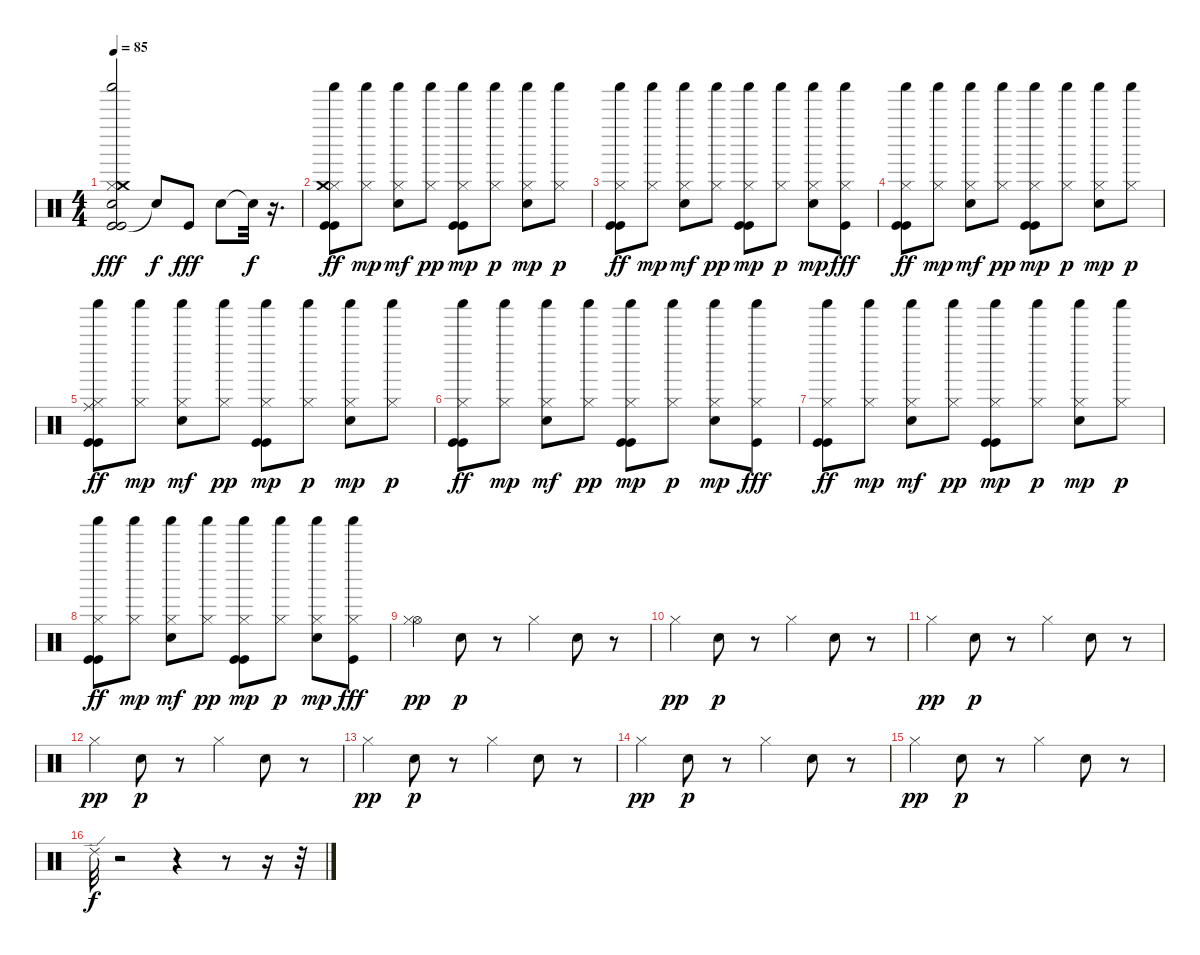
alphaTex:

\track "" {instrument percussion}
\staff {score}
\articulation defaults
\ts (4 4)
\tempo 85
\clef neutral
\ks c
("Kick (hit)" "Hi-Hat (closed)" "Shaker (hit)" "Kick (hit)" "Crash medium (hit)" "Snare (hit)").2{dy fff} "Snare (hit)"{t}.8{dy f} "Kick (hit)".8{dy fff} "Metronome (bell)".8 "Snare (hit)"{t}.32{dy f} r.16{d} |
("Kick (hit)" "Hi-Hat (closed)" "Shaker (hit)" "Kick (hit)" "Crash medium (hit)").8{dy ff} ("Hi-Hat (closed)" "Shaker (hit)").8{dy mp} ("Hi-Hat (closed)" "Shaker (hit)" "Metronome (bell)").8{dy mf} ("Hi-Hat (closed)" "Shaker (hit)").8{dy pp} ("Kick (hit)" "Kick (hit)" "Hi-Hat (closed)" "Shaker (hit)").8{dy mp} ("Hi-Hat (closed)" "Shaker (hit)").8{dy p} ("Metronome (bell)" "Shaker (hit)" "Hi-Hat (closed)").8{dy mp} ("Hi-Hat (closed)" "Shaker (hit)").8{dy p} |
("Kick (hit)" "Hi-Hat (closed)" "Shaker (hit)" "Kick (hit)").8{dy ff} ("Hi-Hat (closed)" "Shaker (hit)").8{dy mp} ("Hi-Hat (closed)" "Shaker (hit)" "Metronome (bell)").8{dy mf} ("Hi-Hat (closed)" "Shaker (hit)").8{dy pp} ("Kick (hit)" "Kick (hit)" "Hi-Hat (closed)" "Shaker (hit)").8{dy mp} ("Hi-Hat (closed)" "Shaker (hit)").8{dy p} ("Metronome (bell)" "Shaker (hit)" "Hi-Hat (closed)").8{dy mp} ("Hi-Hat (closed)" "Shaker (hit)" "Kick (hit)").8{dy fff} |
("Kick (hit)" "Hi-Hat (closed)" "Shaker (hit)" "Kick (hit)").8{dy ff} ("Hi-Hat (closed)" "Shaker (hit)").8{dy mp} ("Hi-Hat (closed)" "Shaker (hit)" "Metronome (bell)").8{dy mf} ("Hi-Hat (closed)" "Shaker (hit)").8{dy pp} ("Kick (hit)" "Kick (hit)" "Hi-Hat (closed)" "Shaker (hit)").8{dy mp} ("Hi-Hat (closed)" "Shaker (hit)").8{dy p} ("Metronome (bell)" "Shaker (hit)" "Hi-Hat (closed)").8{dy mp} ("Hi-Hat (closed)" "Shaker (hit)").8{dy p} |
("Ride (middle)" "Kick (hit)" "Hi-Hat (closed)" "Shaker (hit)" "Kick (hit)").8{dy ff} ("Hi-Hat (closed)" "Shaker (hit)").8{dy mp} ("Hi-Hat (closed)" "Shaker (hit)" "Metronome (bell)").8{dy mf} ("Hi-Hat (closed)" "Shaker (hit)").8{dy pp} ("Kick (hit)" "Kick (hit)" "Hi-Hat (closed)" "Shaker (hit)").8{dy mp} ("Hi-Hat (closed)" "Shaker (hit)").8{dy p} ("Metronome (bell)" "Shaker (hit)" "Hi-Hat (closed)").8{dy mp} ("Hi-Hat (closed)" "Shaker (hit)").8{dy p} |
("Kick (hit)" "Hi-Hat (closed)" "Shaker (hit)" "Kick (hit)").8{dy ff} ("Hi-Hat (closed)" "Shaker (hit)").8{dy mp} ("Hi-Hat (closed)" "Shaker (hit)" "Metronome (bell)").8{dy mf} ("Hi-Hat (closed)" "Shaker (hit)").8{dy pp} ("Kick (hit)" "Kick (hit)" "Hi-Hat (closed)" "Shaker (hit)").8{dy mp} ("Hi-Hat (closed)" "Shaker (hit)").8{dy p} ("Metronome (bell)" "Shaker (hit)" "Hi-Hat (closed)").8{dy mp} ("Hi-Hat (closed)" "Shaker (hit)" "Kick (hit)").8{dy fff} |
("Kick (hit)" "Hi-Hat (closed)" "Shaker (hit)" "Kick (hit)").8{dy ff} ("Hi-Hat (closed)" "Shaker (hit)").8{dy mp} ("Hi-Hat (closed)" "Shaker (hit)" "Metronome (bell)").8{dy mf} ("Hi-Hat (closed)" "Shaker (hit)").8{dy pp} ("Kick (hit)" "Kick (hit)" "Hi-Hat (closed)" "Shaker (hit)").8{dy mp} ("Hi-Hat (closed)" "Shaker (hit)").8{dy p} ("Metronome (bell)" "Shaker (hit)" "Hi-Hat (closed)").8{dy mp} ("Hi-Hat (closed)" "Shaker (hit)").8{dy p} |
("Kick (hit)" "Hi-Hat (closed)" "Shaker (hit)" "Kick (hit)").8{dy ff} ("Hi-Hat (closed)" "Shaker (hit)").8{dy mp} ("Hi-Hat (closed)" "Shaker (hit)" "Metronome (bell)").8{dy mf} ("Hi-Hat (closed)" "Shaker (hit)").8{dy pp} ("Kick (hit)" "Kick (hit)" "Hi-Hat (closed)" "Shaker (hit)").8{dy mp} ("Hi-Hat (closed)" "Shaker (hit)").8{dy p} ("Metronome (bell)" "Shaker (hit)" "Hi-Hat (closed)").8{dy mp} ("Hi-Hat (closed)" "Shaker (hit)" "Kick (hit)").8{dy fff} |
("Hi-Hat (open)" "Hi-Hat (closed)").4{dy pp} "Hand Clap (hit)".8{dy p} r.8 "Hi-Hat (closed)".4 "Hand Clap (hit)".8 r.8 |
"Hi-Hat (closed)".4{dy pp} "Hand Clap (hit)".8{dy p} r.8 "Hi-Hat (closed)".4 "Hand Clap (hit)".8 r.8 |
"Hi-Hat (closed)".4{dy pp} "Hand Clap (hit)".8{dy p} r.8 "Hi-Hat (closed)".4 "Hand Clap (hit)".8 r.8 |
"Hi-Hat (closed)".4{dy pp} "Hand Clap (hit)".8{dy p} r.8 "Hi-Hat (closed)".4 "Hand Clap (hit)".8 r.8 |
"Hi-Hat (closed)".4{dy pp} "Hand Clap (hit)".8{dy p} r.8 "Hi-Hat (closed)".4 "Hand Clap (hit)".8 r.8 |
"Hi-Hat (closed)".4{dy pp} "Hand Clap (hit)".8{dy p} r.8 "Hi-Hat (closed)".4 "Hand Clap (hit)".8 r.8 |
"Hi-Hat (closed)".4{dy pp} "Hand Clap (hit)".8{dy p} r.8 "Hi-Hat (closed)".4 "Hand Clap (hit)".8 r.8 |
"Ride (edge) 2".32{dy f} r.2 r.4 r.8 r.16 r.32
